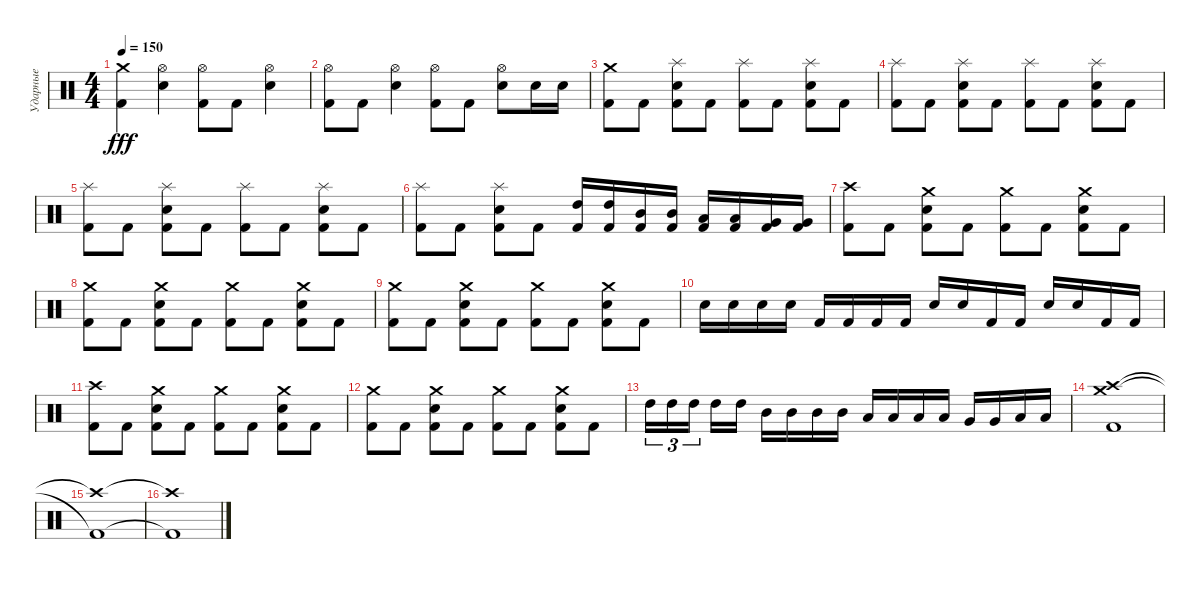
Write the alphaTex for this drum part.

\track ("Ударные" "Ударные") {instrument percussion}
\staff {score}
\articulation defaults
\ts (4 4)
\tempo 150
\clef neutral
\ks c
("Crash medium (hit)" "Kick (hit) 2").4{dy fff} ("Hi-Hat (open)" "Electric Snare (hit)").4 ("Hi-Hat (open)" "Kick (hit) 2").8 "Kick (hit) 2".8 ("Hi-Hat (open)" "Electric Snare (hit)").4 |
("Hi-Hat (open)" "Kick (hit) 2").8 "Kick (hit) 2".8 ("Hi-Hat (open)" "Electric Snare (hit)").4 ("Hi-Hat (open)" "Kick (hit) 2").8 "Kick (hit) 2".8 ("Hi-Hat (open)" "Electric Snare (hit)").8 "Electric Snare (hit)".16 "Electric Snare (hit)".16 |
("Crash medium (hit)" "Kick (hit) 2").8 "Kick (hit) 2".8 ("Splash (hit)" "Electric Snare (hit)" "Kick (hit) 2").8 "Kick (hit) 2".8 ("Splash (hit)" "Kick (hit) 2").8 "Kick (hit) 2".8 ("Splash (hit)" "Electric Snare (hit)" "Kick (hit) 2").8 "Kick (hit) 2".8 |
("Splash (hit)" "Kick (hit) 2").8 "Kick (hit) 2".8 ("Splash (hit)" "Electric Snare (hit)" "Kick (hit) 2").8 "Kick (hit) 2".8 ("Splash (hit)" "Kick (hit) 2").8 "Kick (hit) 2".8 ("Splash (hit)" "Electric Snare (hit)" "Kick (hit) 2").8 "Kick (hit) 2".8 |
("Splash (hit)" "Kick (hit) 2").8 "Kick (hit) 2".8 ("Splash (hit)" "Electric Snare (hit)" "Kick (hit) 2").8 "Kick (hit) 2".8 ("Splash (hit)" "Kick (hit) 2").8 "Kick (hit) 2".8 ("Splash (hit)" "Electric Snare (hit)" "Kick (hit) 2").8 "Kick (hit) 2".8 |
("Splash (hit)" "Kick (hit) 2").8 "Kick (hit) 2".8 ("Splash (hit)" "Electric Snare (hit)" "Kick (hit) 2").8 "Kick (hit) 2".8 ("High Tom (hit)" "Kick (hit) 2").16 ("High Tom (hit)" "Kick (hit) 2").16 ("Mid Tom (hit)" "Kick (hit) 2").16 ("Mid Tom (hit)" "Kick (hit) 2").16 ("Low Tom (hit)" "Kick (hit) 2").16 ("Low Tom (hit)" "Kick (hit) 2").16 ("Very Low Tom (hit)" "Kick (hit) 2").16 ("Very Low Tom (hit)" "Kick (hit) 2").16 |
("Crash high (hit)" "Kick (hit) 2").8 "Kick (hit) 2".8 ("Crash medium (hit)" "Electric Snare (hit)" "Kick (hit) 2").8 "Kick (hit) 2".8 ("Crash medium (hit)" "Kick (hit) 2").8 "Kick (hit) 2".8 ("Crash medium (hit)" "Electric Snare (hit)" "Kick (hit) 2").8 "Kick (hit) 2".8 |
("Crash medium (hit)" "Kick (hit) 2").8 "Kick (hit) 2".8 ("Crash medium (hit)" "Electric Snare (hit)" "Kick (hit) 2").8 "Kick (hit) 2".8 ("Crash medium (hit)" "Kick (hit) 2").8 "Kick (hit) 2".8 ("Crash medium (hit)" "Electric Snare (hit)" "Kick (hit) 2").8 "Kick (hit) 2".8 |
("Crash medium (hit)" "Kick (hit) 2").8 "Kick (hit) 2".8 ("Crash medium (hit)" "Electric Snare (hit)" "Kick (hit) 2").8 "Kick (hit) 2".8 ("Crash medium (hit)" "Kick (hit) 2").8 "Kick (hit) 2".8 ("Crash medium (hit)" "Electric Snare (hit)" "Kick (hit) 2").8 "Kick (hit) 2".8 |
"Electric Snare (hit)".16 "Electric Snare (hit)".16 "Electric Snare (hit)".16 "Electric Snare (hit)".16 "Kick (hit) 2".16 "Kick (hit) 2".16 "Kick (hit) 2".16 "Kick (hit) 2".16 "Electric Snare (hit)".16 "Electric Snare (hit)".16 "Kick (hit) 2".16 "Kick (hit) 2".16 "Electric Snare (hit)".16 "Electric Snare (hit)".16 "Kick (hit) 2".16 "Kick (hit) 2".16 |
("Crash high (hit)" "Kick (hit) 2").8 "Kick (hit) 2".8 ("Crash medium (hit)" "Electric Snare (hit)" "Kick (hit) 2").8 "Kick (hit) 2".8 ("Crash medium (hit)" "Kick (hit) 2").8 "Kick (hit) 2".8 ("Crash medium (hit)" "Electric Snare (hit)" "Kick (hit) 2").8 "Kick (hit) 2".8 |
("Crash medium (hit)" "Kick (hit) 2").8 "Kick (hit) 2".8 ("Crash medium (hit)" "Electric Snare (hit)" "Kick (hit) 2").8 "Kick (hit) 2".8 ("Crash medium (hit)" "Kick (hit) 2").8 "Kick (hit) 2".8 ("Crash medium (hit)" "Electric Snare (hit)" "Kick (hit) 2").8 "Kick (hit) 2".8 |
"High Tom (hit)".16{tu (3 2)} "High Tom (hit)".16{tu (3 2)} "High Tom (hit)".16{tu (3 2) beam splitsecondary} "High Tom (hit)".16 "High Tom (hit)".16 "Mid Tom (hit)".16 "Mid Tom (hit)".16 "Mid Tom (hit)".16 "Mid Tom (hit)".16 "Low Tom (hit)".16 "Low Tom (hit)".16 "Low Tom (hit)".16 "Low Tom (hit)".16 "Very Low Tom (hit)".16 "Very Low Tom (hit)".16 "Low Floor Tom (hit)".16 "Low Floor Tom (hit)".16 |
("Crash high (hit)" "Crash medium (hit)" "Kick (hit) 2").1 |
("Crash high (hit)"{t} "Kick (hit) 2"{t}).1 |
("Crash high (hit)"{t} "Kick (hit) 2"{t}).1
